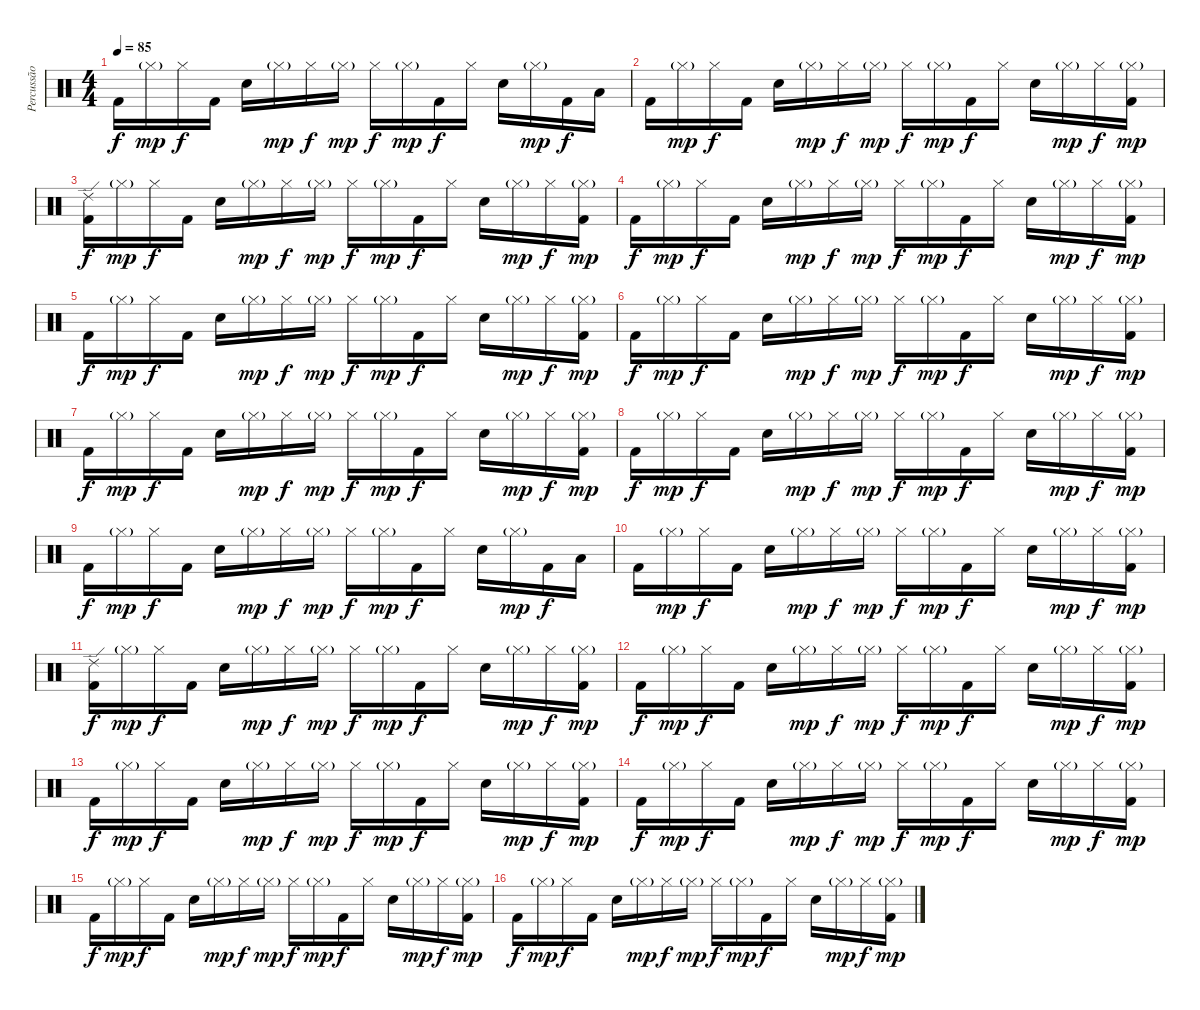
\track ("Percussão" "Percussão") {instrument percussion}
\staff {score}
\articulation defaults
\ts (4 4)
\tempo 85
\clef neutral
\ks c "Kick (hit) 2".16{dy f} "Hi-Hat (closed)"{g}.16{dy mp} "Hi-Hat (closed)".16{dy f} "Kick (hit) 2".16 "Electric Snare (hit)".16 "Hi-Hat (closed)"{g}.16{dy mp} "Hi-Hat (closed)".16{dy f} "Hi-Hat (closed)"{g}.16{dy mp} "Hi-Hat (closed)".16{dy f} "Hi-Hat (closed)"{g}.16{dy mp} "Kick (hit) 2".16{dy f} "Hi-Hat (closed)".16 "Electric Snare (hit)".16 "Hi-Hat (closed)"{g}.16{dy mp} "Kick (hit) 2".16{dy f} "Low Tom (hit)".16
|
"Kick (hit) 2".16 "Hi-Hat (closed)"{g}.16{dy mp} "Hi-Hat (closed)".16{dy f} "Kick (hit) 2".16 "Electric Snare (hit)".16 "Hi-Hat (closed)"{g}.16{dy mp} "Hi-Hat (closed)".16{dy f} "Hi-Hat (closed)"{g}.16{dy mp} "Hi-Hat (closed)".16{dy f} "Hi-Hat (closed)"{g}.16{dy mp} "Kick (hit) 2".16{dy f} "Hi-Hat (closed)".16 "Electric Snare (hit)".16 "Hi-Hat (closed)"{g}.16{dy mp} "Hi-Hat (closed)".16{dy f} ("Hi-Hat (closed)"{g} "Kick (hit) 2").16{dy mp} |
("Ride (edge) 2" "Kick (hit) 2").16{dy f} "Hi-Hat (closed)"{g}.16{dy mp} "Hi-Hat (closed)".16{dy f} "Kick (hit) 2".16 "Electric Snare (hit)".16 "Hi-Hat (closed)"{g}.16{dy mp} "Hi-Hat (closed)".16{dy f} "Hi-Hat (closed)"{g}.16{dy mp} "Hi-Hat (closed)".16{dy f} "Hi-Hat (closed)"{g}.16{dy mp} "Kick (hit) 2".16{dy f} "Hi-Hat (closed)".16 "Electric Snare (hit)".16 "Hi-Hat (closed)"{g}.16{dy mp} "Hi-Hat (closed)".16{dy f} ("Hi-Hat (closed)"{g} "Kick (hit) 2").16{dy mp} |
"Kick (hit) 2".16{dy f} "Hi-Hat (closed)"{g}.16{dy mp} "Hi-Hat (closed)".16{dy f} "Kick (hit) 2".16 "Electric Snare (hit)".16 "Hi-Hat (closed)"{g}.16{dy mp} "Hi-Hat (closed)".16{dy f} "Hi-Hat (closed)"{g}.16{dy mp} "Hi-Hat (closed)".16{dy f} "Hi-Hat (closed)"{g}.16{dy mp} "Kick (hit) 2".16{dy f} "Hi-Hat (closed)".16 "Electric Snare (hit)".16 "Hi-Hat (closed)"{g}.16{dy mp} "Hi-Hat (closed)".16{dy f} ("Hi-Hat (closed)"{g} "Kick (hit) 2").16{dy mp} |
"Kick (hit) 2".16{dy f} "Hi-Hat (closed)"{g}.16{dy mp} "Hi-Hat (closed)".16{dy f} "Kick (hit) 2".16 "Electric Snare (hit)".16 "Hi-Hat (closed)"{g}.16{dy mp} "Hi-Hat (closed)".16{dy f} "Hi-Hat (closed)"{g}.16{dy mp} "Hi-Hat (closed)".16{dy f} "Hi-Hat (closed)"{g}.16{dy mp} "Kick (hit) 2".16{dy f} "Hi-Hat (closed)".16 "Electric Snare (hit)".16 "Hi-Hat (closed)"{g}.16{dy mp} "Hi-Hat (closed)".16{dy f} ("Hi-Hat (closed)"{g} "Kick (hit) 2").16{dy mp} |
"Kick (hit) 2".16{dy f} "Hi-Hat (closed)"{g}.16{dy mp} "Hi-Hat (closed)".16{dy f} "Kick (hit) 2".16 "Electric Snare (hit)".16 "Hi-Hat (closed)"{g}.16{dy mp} "Hi-Hat (closed)".16{dy f} "Hi-Hat (closed)"{g}.16{dy mp} "Hi-Hat (closed)".16{dy f} "Hi-Hat (closed)"{g}.16{dy mp} "Kick (hit) 2".16{dy f} "Hi-Hat (closed)".16 "Electric Snare (hit)".16 "Hi-Hat (closed)"{g}.16{dy mp} "Hi-Hat (closed)".16{dy f} ("Hi-Hat (closed)"{g} "Kick (hit) 2").16{dy mp} |
"Kick (hit) 2".16{dy f} "Hi-Hat (closed)"{g}.16{dy mp} "Hi-Hat (closed)".16{dy f} "Kick (hit) 2".16 "Electric Snare (hit)".16 "Hi-Hat (closed)"{g}.16{dy mp} "Hi-Hat (closed)".16{dy f} "Hi-Hat (closed)"{g}.16{dy mp} "Hi-Hat (closed)".16{dy f} "Hi-Hat (closed)"{g}.16{dy mp} "Kick (hit) 2".16{dy f} "Hi-Hat (closed)".16 "Electric Snare (hit)".16 "Hi-Hat (closed)"{g}.16{dy mp} "Hi-Hat (closed)".16{dy f} ("Hi-Hat (closed)"{g} "Kick (hit) 2").16{dy mp} |
"Kick (hit) 2".16{dy f} "Hi-Hat (closed)"{g}.16{dy mp} "Hi-Hat (closed)".16{dy f} "Kick (hit) 2".16 "Electric Snare (hit)".16 "Hi-Hat (closed)"{g}.16{dy mp} "Hi-Hat (closed)".16{dy f} "Hi-Hat (closed)"{g}.16{dy mp} "Hi-Hat (closed)".16{dy f} "Hi-Hat (closed)"{g}.16{dy mp} "Kick (hit) 2".16{dy f} "Hi-Hat (closed)".16 "Electric Snare (hit)".16 "Hi-Hat (closed)"{g}.16{dy mp} "Hi-Hat (closed)".16{dy f} ("Hi-Hat (closed)"{g} "Kick (hit) 2").16{dy mp} |
"Kick (hit) 2".16{dy f} "Hi-Hat (closed)"{g}.16{dy mp} "Hi-Hat (closed)".16{dy f} "Kick (hit) 2".16 "Electric Snare (hit)".16 "Hi-Hat (closed)"{g}.16{dy mp} "Hi-Hat (closed)".16{dy f} "Hi-Hat (closed)"{g}.16{dy mp} "Hi-Hat (closed)".16{dy f} "Hi-Hat (closed)"{g}.16{dy mp} "Kick (hit) 2".16{dy f} "Hi-Hat (closed)".16 "Electric Snare (hit)".16 "Hi-Hat (closed)"{g}.16{dy mp} "Kick (hit) 2".16{dy f} "Low Tom (hit)".16 |
"Kick (hit) 2".16 "Hi-Hat (closed)"{g}.16{dy mp} "Hi-Hat (closed)".16{dy f} "Kick (hit) 2".16 "Electric Snare (hit)".16 "Hi-Hat (closed)"{g}.16{dy mp} "Hi-Hat (closed)".16{dy f} "Hi-Hat (closed)"{g}.16{dy mp} "Hi-Hat (closed)".16{dy f} "Hi-Hat (closed)"{g}.16{dy mp} "Kick (hit) 2".16{dy f} "Hi-Hat (closed)".16 "Electric Snare (hit)".16 "Hi-Hat (closed)"{g}.16{dy mp} "Hi-Hat (closed)".16{dy f} ("Hi-Hat (closed)"{g} "Kick (hit) 2").16{dy mp} |
("Ride (edge) 2" "Kick (hit) 2").16{dy f} "Hi-Hat (closed)"{g}.16{dy mp} "Hi-Hat (closed)".16{dy f} "Kick (hit) 2".16 "Electric Snare (hit)".16 "Hi-Hat (closed)"{g}.16{dy mp} "Hi-Hat (closed)".16{dy f} "Hi-Hat (closed)"{g}.16{dy mp} "Hi-Hat (closed)".16{dy f} "Hi-Hat (closed)"{g}.16{dy mp} "Kick (hit) 2".16{dy f} "Hi-Hat (closed)".16 "Electric Snare (hit)".16 "Hi-Hat (closed)"{g}.16{dy mp} "Hi-Hat (closed)".16{dy f} ("Hi-Hat (closed)"{g} "Kick (hit) 2").16{dy mp} |
"Kick (hit) 2".16{dy f} "Hi-Hat (closed)"{g}.16{dy mp} "Hi-Hat (closed)".16{dy f} "Kick (hit) 2".16 "Electric Snare (hit)".16 "Hi-Hat (closed)"{g}.16{dy mp} "Hi-Hat (closed)".16{dy f} "Hi-Hat (closed)"{g}.16{dy mp} "Hi-Hat (closed)".16{dy f} "Hi-Hat (closed)"{g}.16{dy mp} "Kick (hit) 2".16{dy f} "Hi-Hat (closed)".16 "Electric Snare (hit)".16 "Hi-Hat (closed)"{g}.16{dy mp} "Hi-Hat (closed)".16{dy f} ("Hi-Hat (closed)"{g} "Kick (hit) 2").16{dy mp} |
"Kick (hit) 2".16{dy f} "Hi-Hat (closed)"{g}.16{dy mp} "Hi-Hat (closed)".16{dy f} "Kick (hit) 2".16 "Electric Snare (hit)".16 "Hi-Hat (closed)"{g}.16{dy mp} "Hi-Hat (closed)".16{dy f} "Hi-Hat (closed)"{g}.16{dy mp} "Hi-Hat (closed)".16{dy f} "Hi-Hat (closed)"{g}.16{dy mp} "Kick (hit) 2".16{dy f} "Hi-Hat (closed)".16 "Electric Snare (hit)".16 "Hi-Hat (closed)"{g}.16{dy mp} "Hi-Hat (closed)".16{dy f} ("Hi-Hat (closed)"{g} "Kick (hit) 2").16{dy mp} |
"Kick (hit) 2".16{dy f} "Hi-Hat (closed)"{g}.16{dy mp} "Hi-Hat (closed)".16{dy f} "Kick (hit) 2".16 "Electric Snare (hit)".16 "Hi-Hat (closed)"{g}.16{dy mp} "Hi-Hat (closed)".16{dy f} "Hi-Hat (closed)"{g}.16{dy mp} "Hi-Hat (closed)".16{dy f} "Hi-Hat (closed)"{g}.16{dy mp} "Kick (hit) 2".16{dy f} "Hi-Hat (closed)".16 "Electric Snare (hit)".16 "Hi-Hat (closed)"{g}.16{dy mp} "Hi-Hat (closed)".16{dy f} ("Hi-Hat (closed)"{g} "Kick (hit) 2").16{dy mp} |
"Kick (hit) 2".16{dy f} "Hi-Hat (closed)"{g}.16{dy mp} "Hi-Hat (closed)".16{dy f} "Kick (hit) 2".16 "Electric Snare (hit)".16 "Hi-Hat (closed)"{g}.16{dy mp} "Hi-Hat (closed)".16{dy f} "Hi-Hat (closed)"{g}.16{dy mp} "Hi-Hat (closed)".16{dy f} "Hi-Hat (closed)"{g}.16{dy mp} "Kick (hit) 2".16{dy f} "Hi-Hat (closed)".16 "Electric Snare (hit)".16 "Hi-Hat (closed)"{g}.16{dy mp} "Hi-Hat (closed)".16{dy f} ("Hi-Hat (closed)"{g} "Kick (hit) 2").16{dy mp} |
"Kick (hit) 2".16{dy f} "Hi-Hat (closed)"{g}.16{dy mp} "Hi-Hat (closed)".16{dy f} "Kick (hit) 2".16 "Electric Snare (hit)".16 "Hi-Hat (closed)"{g}.16{dy mp} "Hi-Hat (closed)".16{dy f} "Hi-Hat (closed)"{g}.16{dy mp} "Hi-Hat (closed)".16{dy f} "Hi-Hat (closed)"{g}.16{dy mp} "Kick (hit) 2".16{dy f} "Hi-Hat (closed)".16 "Electric Snare (hit)".16 "Hi-Hat (closed)"{g}.16{dy mp} "Hi-Hat (closed)".16{dy f} ("Hi-Hat (closed)"{g} "Kick (hit) 2").16{dy mp}
